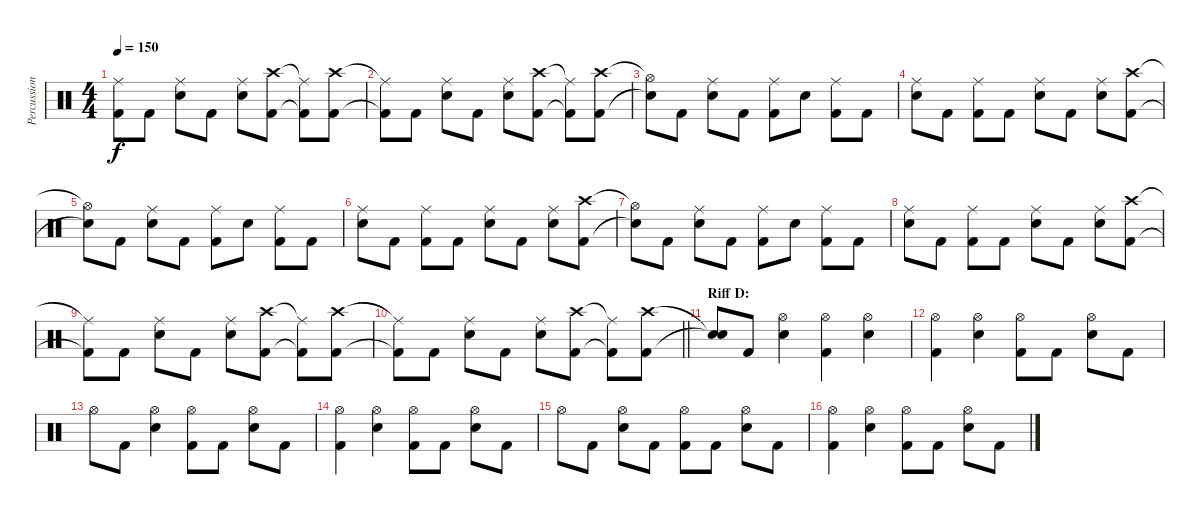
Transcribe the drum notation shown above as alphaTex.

\track ("Percussion" "Percussion") {instrument percussion}
\staff {score}
\articulation defaults
\ts (4 4)
\tempo 150
\clef neutral
\ks c
("Ride (middle)"{t} "Kick (hit) 2"{t}).8{dy f} "Kick (hit) 2".8 ("Ride (middle)" "Snare (hit) 2").8 "Kick (hit) 2".8 ("Ride (middle)" "Snare (hit) 2").8 ("Crash high (hit)" "Kick (hit) 2").8 ("Ride (middle)"{t} "Kick (hit) 2"{t}).8 ("Crash high (hit)" "Kick (hit) 2").8 |
("Ride (middle)"{t} "Kick (hit) 2"{t}).8 "Kick (hit) 2".8 ("Ride (middle)" "Snare (hit) 2").8 "Kick (hit) 2".8 ("Ride (middle)" "Snare (hit) 2").8 ("Crash high (hit)" "Kick (hit) 2").8 ("Ride (middle)"{t} "Kick (hit) 2"{t}).8 ("Crash high (hit)" "Kick (hit) 2").8 |
("Hi-Hat (open)"{t} "Snare (hit)"{t}).8 "Kick (hit) 2".8 ("Ride (middle)" "Snare (hit) 2").8 "Kick (hit) 2".8 ("Ride (middle)" "Kick (hit) 2").8 "Snare (hit) 2".8 ("Ride (middle)" "Kick (hit) 2").8 "Kick (hit) 2".8 |
("Ride (middle)" "Snare (hit) 2").8 "Kick (hit) 2".8 ("Ride (middle)" "Kick (hit) 2").8 "Kick (hit) 2".8 ("Ride (middle)" "Snare (hit) 2").8 "Kick (hit) 2".8 ("Ride (middle)" "Snare (hit) 2").8 ("Crash high (hit)" "Kick (hit) 2").8 |
("Hi-Hat (open)"{t} "Snare (hit)"{t}).8 "Kick (hit) 2".8 ("Ride (middle)" "Snare (hit) 2").8 "Kick (hit) 2".8 ("Ride (middle)" "Kick (hit) 2").8 "Snare (hit) 2".8 ("Ride (middle)" "Kick (hit) 2").8 "Kick (hit) 2".8 |
("Ride (middle)" "Snare (hit) 2").8 "Kick (hit) 2".8 ("Ride (middle)" "Kick (hit) 2").8 "Kick (hit) 2".8 ("Ride (middle)" "Snare (hit) 2").8 "Kick (hit) 2".8 ("Ride (middle)" "Snare (hit) 2").8 ("Crash high (hit)" "Kick (hit) 2").8 |
("Hi-Hat (open)"{t} "Snare (hit)"{t}).8 "Kick (hit) 2".8 ("Ride (middle)" "Snare (hit) 2").8 "Kick (hit) 2".8 ("Ride (middle)" "Kick (hit) 2").8 "Snare (hit) 2".8 ("Ride (middle)" "Kick (hit) 2").8 "Kick (hit) 2".8 |
("Ride (middle)" "Snare (hit) 2").8 "Kick (hit) 2".8 ("Ride (middle)" "Kick (hit) 2").8 "Kick (hit) 2".8 ("Ride (middle)" "Snare (hit) 2").8 "Kick (hit) 2".8 ("Ride (middle)" "Snare (hit) 2").8 ("Crash high (hit)" "Kick (hit) 2").8 |
("Ride (middle)"{t} "Kick (hit) 2"{t}).8 "Kick (hit) 2".8 ("Ride (middle)" "Snare (hit) 2").8 "Kick (hit) 2".8 ("Ride (middle)" "Snare (hit) 2").8 ("Crash high (hit)" "Kick (hit) 2").8 ("Ride (middle)"{t} "Kick (hit) 2"{t}).8 ("Crash high (hit)" "Kick (hit) 2").8 |
\barLineRight lightlight
("Ride (middle)"{t} "Kick (hit) 2"{t}).8 "Kick (hit) 2".8 ("Ride (middle)" "Snare (hit) 2").8 "Kick (hit) 2".8 ("Ride (middle)" "Snare (hit) 2").8 ("Crash high (hit)" "Kick (hit) 2").8 ("Ride (middle)"{t} "Kick (hit) 2"{t}).8 ("Crash high (hit)" "Kick (hit) 2").8 |
\section ("" "Riff D:")
("Snare (hit)"{t} "Snare (hit)"{t}).8 "Kick (hit) 2".8 ("Hi-Hat (open)" "Snare (hit) 2").4 ("Hi-Hat (open)" "Kick (hit) 2").4 ("Hi-Hat (open)" "Snare (hit) 2").4 |
("Hi-Hat (open)" "Kick (hit) 2").4 ("Hi-Hat (open)" "Snare (hit) 2").4 ("Hi-Hat (open)" "Kick (hit) 2").8 "Kick (hit) 2".8 ("Hi-Hat (open)" "Snare (hit) 2").8 "Kick (hit) 2".8 |
"Hi-Hat (open)".8 "Kick (hit) 2".8 ("Hi-Hat (open)" "Snare (hit) 2").4 ("Hi-Hat (open)" "Kick (hit) 2").8 "Kick (hit) 2".8 ("Hi-Hat (open)" "Snare (hit) 2").8 "Kick (hit) 2".8 |
("Hi-Hat (open)" "Kick (hit) 2").4 ("Hi-Hat (open)" "Snare (hit) 2").4 ("Hi-Hat (open)" "Kick (hit) 2").8 "Kick (hit) 2".8 ("Hi-Hat (open)" "Snare (hit) 2").8 "Kick (hit) 2".8 |
"Hi-Hat (open)".8 "Kick (hit) 2".8 ("Hi-Hat (open)" "Snare (hit) 2").8 "Kick (hit) 2".8 ("Hi-Hat (open)" "Kick (hit) 2").8 "Kick (hit) 2".8 ("Hi-Hat (open)" "Snare (hit) 2").8 "Kick (hit) 2".8 |
("Hi-Hat (open)" "Kick (hit) 2").4 ("Hi-Hat (open)" "Snare (hit) 2").4 ("Hi-Hat (open)" "Kick (hit) 2").8 "Kick (hit) 2".8 ("Hi-Hat (open)" "Snare (hit) 2").8 "Kick (hit) 2".8
